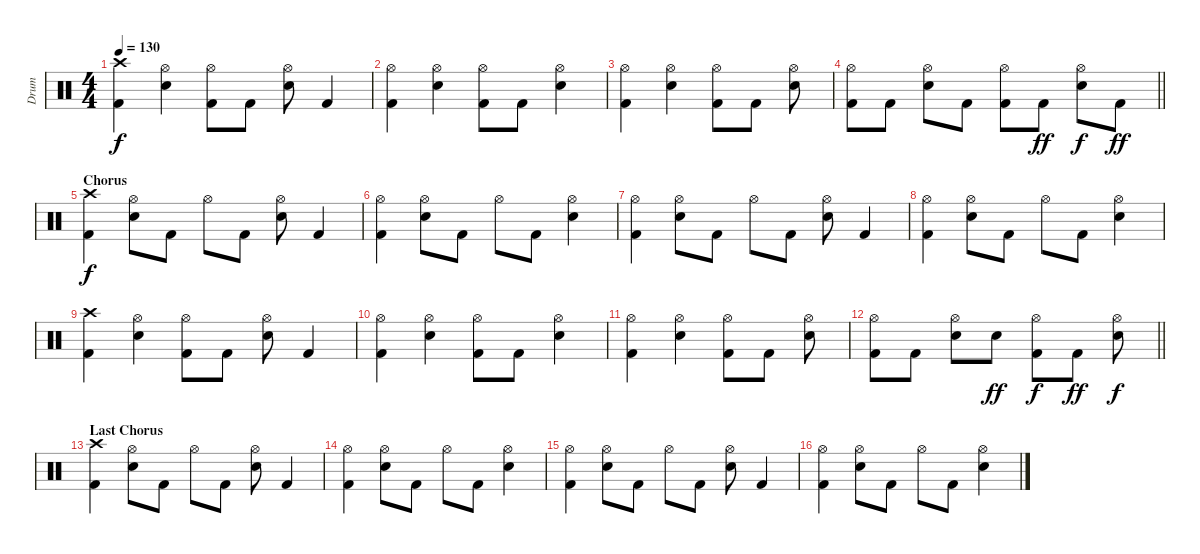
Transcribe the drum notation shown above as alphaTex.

\track ("Drum" "Drum") {instrument percussion}
\staff {score}
\articulation defaults
\ts (4 4)
\tempo 130
\clef neutral
\ks c
("Crash high (hit)" "Kick (hit) 2").4{dy f} ("Hi-Hat (open)" "Electric Snare (hit)").4 ("Hi-Hat (open)" "Kick (hit) 2").8 "Kick (hit) 2".8 ("Hi-Hat (open)" "Electric Snare (hit)").8 "Kick (hit) 2".4 |
("Hi-Hat (open)" "Kick (hit) 2").4 ("Hi-Hat (open)" "Electric Snare (hit)").4 ("Hi-Hat (open)" "Kick (hit) 2").8 "Kick (hit) 2".8 ("Hi-Hat (open)" "Electric Snare (hit)").4 |
("Hi-Hat (open)" "Kick (hit) 2").4 ("Hi-Hat (open)" "Electric Snare (hit)").4 ("Hi-Hat (open)" "Kick (hit) 2").8 "Kick (hit) 2".8 ("Hi-Hat (open)" "Electric Snare (hit)").8 |
\barLineRight lightlight
("Hi-Hat (open)" "Kick (hit) 2").8 "Kick (hit) 2".8 ("Hi-Hat (open)" "Electric Snare (hit)").8 "Kick (hit) 2".8 ("Hi-Hat (open)" "Kick (hit) 2").8 "Kick (hit) 2".8{dy ff} ("Hi-Hat (open)" "Electric Snare (hit)").8{dy f} "Kick (hit) 2".8{dy ff} |
\section ("" "Chorus")
("Crash high (hit)" "Kick (hit) 2").4{dy f} ("Hi-Hat (open)" "Electric Snare (hit)").8 "Kick (hit) 2".8 "Hi-Hat (open)".8 "Kick (hit) 2".8 ("Hi-Hat (open)" "Electric Snare (hit)").8 "Kick (hit) 2".4 |
("Hi-Hat (open)" "Kick (hit) 2").4 ("Hi-Hat (open)" "Electric Snare (hit)").8 "Kick (hit) 2".8 "Hi-Hat (open)".8 "Kick (hit) 2".8 ("Hi-Hat (open)" "Electric Snare (hit)").4 |
("Hi-Hat (open)" "Kick (hit) 2").4 ("Hi-Hat (open)" "Electric Snare (hit)").8 "Kick (hit) 2".8 "Hi-Hat (open)".8 "Kick (hit) 2".8 ("Hi-Hat (open)" "Electric Snare (hit)").8 "Kick (hit) 2".4 |
("Hi-Hat (open)" "Kick (hit) 2").4 ("Hi-Hat (open)" "Electric Snare (hit)").8 "Kick (hit) 2".8 "Hi-Hat (open)".8 "Kick (hit) 2".8 ("Hi-Hat (open)" "Electric Snare (hit)").4 |
("Crash high (hit)" "Kick (hit) 2").4 ("Hi-Hat (open)" "Electric Snare (hit)").4 ("Hi-Hat (open)" "Kick (hit) 2").8 "Kick (hit) 2".8 ("Hi-Hat (open)" "Electric Snare (hit)").8 "Kick (hit) 2".4 |
("Hi-Hat (open)" "Kick (hit) 2").4 ("Hi-Hat (open)" "Electric Snare (hit)").4 ("Hi-Hat (open)" "Kick (hit) 2").8 "Kick (hit) 2".8 ("Hi-Hat (open)" "Electric Snare (hit)").4 |
("Hi-Hat (open)" "Kick (hit) 2").4 ("Hi-Hat (open)" "Electric Snare (hit)").4 ("Hi-Hat (open)" "Kick (hit) 2").8 "Kick (hit) 2".8 ("Hi-Hat (open)" "Electric Snare (hit)").8 |
\barLineRight lightlight
("Hi-Hat (open)" "Kick (hit) 2").8 "Kick (hit) 2".8 ("Hi-Hat (open)" "Electric Snare (hit)").8 "Electric Snare (hit)".8{dy ff} ("Hi-Hat (open)" "Kick (hit) 2").8{dy f} "Kick (hit) 2".8{dy ff} ("Hi-Hat (open)" "Electric Snare (hit)").8{dy f} |
\section ("" "Last Chorus")
("Crash high (hit)" "Kick (hit) 2").4 ("Hi-Hat (open)" "Electric Snare (hit)").8 "Kick (hit) 2".8 "Hi-Hat (open)".8 "Kick (hit) 2".8 ("Hi-Hat (open)" "Electric Snare (hit)").8 "Kick (hit) 2".4 |
("Hi-Hat (open)" "Kick (hit) 2").4 ("Hi-Hat (open)" "Electric Snare (hit)").8 "Kick (hit) 2".8 "Hi-Hat (open)".8 "Kick (hit) 2".8 ("Hi-Hat (open)" "Electric Snare (hit)").4 |
("Hi-Hat (open)" "Kick (hit) 2").4 ("Hi-Hat (open)" "Electric Snare (hit)").8 "Kick (hit) 2".8 "Hi-Hat (open)".8 "Kick (hit) 2".8 ("Hi-Hat (open)" "Electric Snare (hit)").8 "Kick (hit) 2".4 |
("Hi-Hat (open)" "Kick (hit) 2").4 ("Hi-Hat (open)" "Electric Snare (hit)").8 "Kick (hit) 2".8 "Hi-Hat (open)".8 "Kick (hit) 2".8 ("Hi-Hat (open)" "Electric Snare (hit)").4
